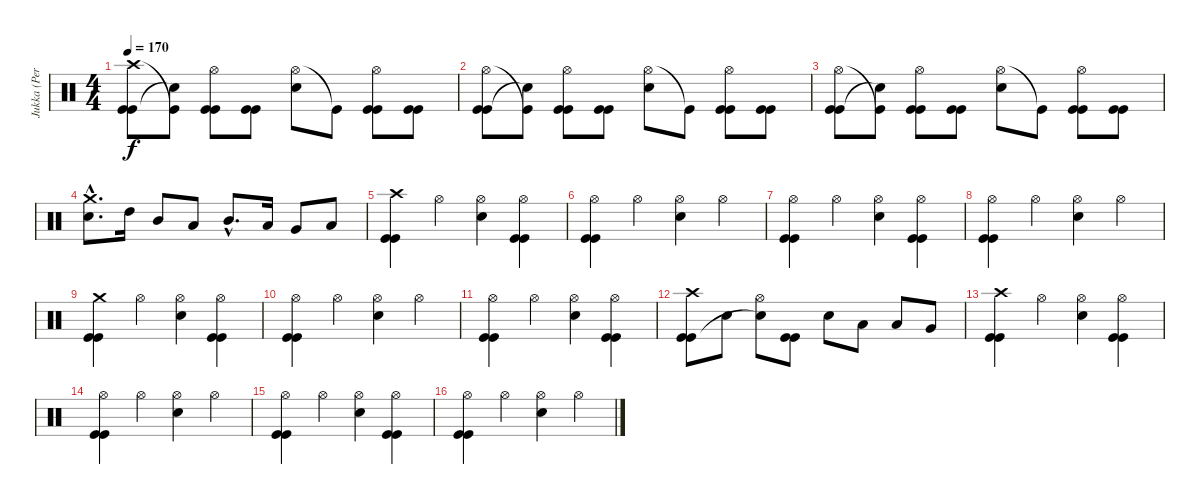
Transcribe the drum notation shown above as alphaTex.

\track ("Jukka (Percussion)" "Jukka (Per") {instrument percussion}
\staff {score}
\articulation defaults
\ts (4 4)
\tempo 170
\clef neutral
\ks c
("Crash high (hit)" "Kick (hit)" "Kick (hit)").8{dy f} ("Kick (hit)"{t} "Snare (hit)"{t}).8 ("Hi-Hat (open)" "Kick (hit)" "Kick (hit)").8 ("Kick (hit)" "Kick (hit)").8 ("Hi-Hat (open)" "Snare (hit) 2").8 "Kick (hit)"{t}.8 ("Hi-Hat (open)" "Kick (hit)" "Kick (hit)").8 ("Kick (hit)" "Kick (hit)").8 |
("Hi-Hat (open)" "Kick (hit)" "Kick (hit)").8 ("Kick (hit)"{t} "Snare (hit)"{t}).8 ("Hi-Hat (open)" "Kick (hit)" "Kick (hit)").8 ("Kick (hit)" "Kick (hit)").8 ("Hi-Hat (open)" "Snare (hit) 2").8 "Kick (hit)"{t}.8 ("Hi-Hat (open)" "Kick (hit)" "Kick (hit)").8 ("Kick (hit)" "Kick (hit)").8 |
("Hi-Hat (open)" "Kick (hit)" "Kick (hit)").8 ("Kick (hit)"{t} "Snare (hit)"{t}).8 ("Hi-Hat (open)" "Kick (hit)" "Kick (hit)").8 ("Kick (hit)" "Kick (hit)").8 ("Hi-Hat (open)" "Snare (hit) 2").8 "Kick (hit)"{t}.8 ("Hi-Hat (open)" "Kick (hit)" "Kick (hit)").8 ("Kick (hit)" "Kick (hit)").8 |
("Crash medium (hit)"{hac} "Snare (hit) 2"{hac}).8{d} "High Tom (hit)".16 "Mid Tom (hit)".8 "Low Tom (hit)".8 "Mid Tom (hit)"{hac}.8{d} "Low Tom (hit)".16 "Very Low Tom (hit)".8 "Low Floor Tom (hit)".8 |
("Crash high (hit)" "Kick (hit)" "Kick (hit)").4 "Hi-Hat (open)".4 ("Hi-Hat (open)" "Snare (hit) 2").4 ("Hi-Hat (open)" "Kick (hit)" "Kick (hit)").4 |
("Hi-Hat (open)" "Kick (hit)" "Kick (hit)").4 "Hi-Hat (open)".4 ("Hi-Hat (open)" "Snare (hit) 2").4 "Hi-Hat (open)".4 |
("Hi-Hat (open)" "Kick (hit)" "Kick (hit)").4 "Hi-Hat (open)".4 ("Hi-Hat (open)" "Snare (hit) 2").4 ("Hi-Hat (open)" "Kick (hit)" "Kick (hit)").4 |
("Hi-Hat (open)" "Kick (hit)" "Kick (hit)").4 "Hi-Hat (open)".4 ("Hi-Hat (open)" "Snare (hit) 2").4 "Hi-Hat (open)".4 |
("Crash medium (hit)" "Kick (hit)" "Kick (hit)").4 "Hi-Hat (open)".4 ("Hi-Hat (open)" "Snare (hit) 2").4 ("Hi-Hat (open)" "Kick (hit)" "Kick (hit)").4 |
("Hi-Hat (open)" "Kick (hit)" "Kick (hit)").4 "Hi-Hat (open)".4 ("Hi-Hat (open)" "Snare (hit) 2").4 "Hi-Hat (open)".4 |
("Hi-Hat (open)" "Kick (hit)" "Kick (hit)").4 "Hi-Hat (open)".4 ("Hi-Hat (open)" "Snare (hit) 2").4 ("Hi-Hat (open)" "Kick (hit)" "Kick (hit)").4 |
("Crash high (hit)" "Kick (hit)" "Kick (hit)").8 "Snare (hit) 2".8 ("Hi-Hat (open)" "Snare (hit) 2"{t}).8 ("Kick (hit)" "Kick (hit)").8 "Snare (hit) 2".8 "Low Tom (hit)".8 "Low Tom (hit)".8 "Very Low Tom (hit)".8 |
("Crash high (hit)" "Kick (hit)" "Kick (hit)").4 "Hi-Hat (open)".4 ("Hi-Hat (open)" "Snare (hit) 2").4 ("Hi-Hat (open)" "Kick (hit)" "Kick (hit)").4 |
("Hi-Hat (open)" "Kick (hit)" "Kick (hit)").4 "Hi-Hat (open)".4 ("Hi-Hat (open)" "Snare (hit) 2").4 "Hi-Hat (open)".4 |
("Hi-Hat (open)" "Kick (hit)" "Kick (hit)").4 "Hi-Hat (open)".4 ("Hi-Hat (open)" "Snare (hit) 2").4 ("Hi-Hat (open)" "Kick (hit)" "Kick (hit)").4 |
("Hi-Hat (open)" "Kick (hit)" "Kick (hit)").4 "Hi-Hat (open)".4 ("Hi-Hat (open)" "Snare (hit) 2").4 "Hi-Hat (open)".4
